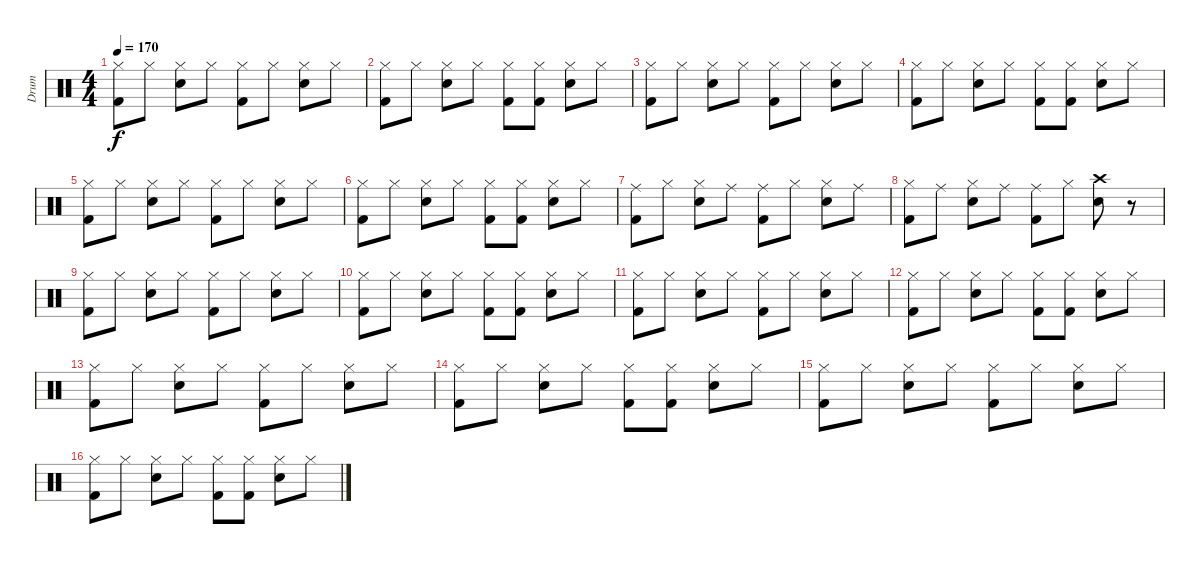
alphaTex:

\track ("Drum" "Drum") {instrument percussion}
\staff {score}
\articulation defaults
\ts (4 4)
\tempo 170
\clef neutral
\ks c
("Hi-Hat (closed)" "Kick (hit) 2").8{dy f} "Hi-Hat (closed)".8 ("Hi-Hat (closed)" "Snare (hit) 2").8 "Hi-Hat (closed)".8 ("Hi-Hat (closed)" "Kick (hit) 2").8 "Hi-Hat (closed)".8 ("Hi-Hat (closed)" "Snare (hit) 2").8 "Hi-Hat (closed)".8 |
("Hi-Hat (closed)" "Kick (hit) 2").8 "Hi-Hat (closed)".8 ("Hi-Hat (closed)" "Snare (hit) 2").8 "Hi-Hat (closed)".8 ("Hi-Hat (closed)" "Kick (hit) 2").8 ("Hi-Hat (closed)" "Kick (hit) 2").8 ("Hi-Hat (closed)" "Snare (hit) 2").8 "Hi-Hat (closed)".8 |
("Hi-Hat (closed)" "Kick (hit) 2").8 "Hi-Hat (closed)".8 ("Hi-Hat (closed)" "Snare (hit) 2").8 "Hi-Hat (closed)".8 ("Hi-Hat (closed)" "Kick (hit) 2").8 "Hi-Hat (closed)".8 ("Hi-Hat (closed)" "Snare (hit) 2").8 "Hi-Hat (closed)".8 |
("Hi-Hat (closed)" "Kick (hit) 2").8 "Hi-Hat (closed)".8 ("Hi-Hat (closed)" "Snare (hit) 2").8 "Hi-Hat (closed)".8 ("Hi-Hat (closed)" "Kick (hit) 2").8 ("Hi-Hat (closed)" "Kick (hit) 2").8 ("Hi-Hat (closed)" "Snare (hit) 2").8 "Hi-Hat (closed)".8 |
("Hi-Hat (closed)" "Kick (hit) 2").8 "Hi-Hat (closed)".8 ("Hi-Hat (closed)" "Snare (hit) 2").8 "Hi-Hat (closed)".8 ("Hi-Hat (closed)" "Kick (hit) 2").8 "Hi-Hat (closed)".8 ("Hi-Hat (closed)" "Snare (hit) 2").8 "Hi-Hat (closed)".8 |
("Hi-Hat (closed)" "Kick (hit) 2").8 "Hi-Hat (closed)".8 ("Hi-Hat (closed)" "Snare (hit) 2").8 "Hi-Hat (closed)".8 ("Hi-Hat (closed)" "Kick (hit) 2").8 ("Hi-Hat (closed)" "Kick (hit) 2").8 ("Hi-Hat (closed)" "Snare (hit) 2").8 "Hi-Hat (closed)".8 |
("Ride (middle)" "Kick (hit) 2").8 "Hi-Hat (closed)".8 ("Hi-Hat (closed)" "Snare (hit) 2").8 "Ride (middle)".8 ("Ride (middle)" "Kick (hit) 2").8 "Hi-Hat (closed)".8 ("Hi-Hat (closed)" "Snare (hit) 2").8 "Ride (middle)".8 |
("Hi-Hat (closed)" "Kick (hit) 2").8 "Ride (middle)".8 ("Hi-Hat (closed)" "Snare (hit) 2").8 "Ride (middle)".8 ("Ride (middle)" "Kick (hit) 2").8 "Hi-Hat (closed)".8 ("Crash high (hit)" "Snare (hit) 2").8 r.8 |
("Hi-Hat (closed)" "Kick (hit) 2").8 "Hi-Hat (closed)".8 ("Hi-Hat (closed)" "Snare (hit) 2").8 "Hi-Hat (closed)".8 ("Hi-Hat (closed)" "Kick (hit) 2").8 "Hi-Hat (closed)".8 ("Hi-Hat (closed)" "Snare (hit) 2").8 "Hi-Hat (closed)".8 |
("Hi-Hat (closed)" "Kick (hit) 2").8 "Hi-Hat (closed)".8 ("Hi-Hat (closed)" "Snare (hit) 2").8 "Hi-Hat (closed)".8 ("Hi-Hat (closed)" "Kick (hit) 2").8 ("Hi-Hat (closed)" "Kick (hit) 2").8 ("Hi-Hat (closed)" "Snare (hit) 2").8 "Hi-Hat (closed)".8 |
("Hi-Hat (closed)" "Kick (hit) 2").8 "Hi-Hat (closed)".8 ("Hi-Hat (closed)" "Snare (hit) 2").8 "Hi-Hat (closed)".8 ("Hi-Hat (closed)" "Kick (hit) 2").8 "Hi-Hat (closed)".8 ("Hi-Hat (closed)" "Snare (hit) 2").8 "Hi-Hat (closed)".8 |
("Hi-Hat (closed)" "Kick (hit) 2").8 "Hi-Hat (closed)".8 ("Hi-Hat (closed)" "Snare (hit) 2").8 "Hi-Hat (closed)".8 ("Hi-Hat (closed)" "Kick (hit) 2").8 ("Hi-Hat (closed)" "Kick (hit) 2").8 ("Hi-Hat (closed)" "Snare (hit) 2").8 "Hi-Hat (closed)".8 |
("Hi-Hat (closed)" "Kick (hit) 2").8 "Hi-Hat (closed)".8 ("Hi-Hat (closed)" "Snare (hit) 2").8 "Hi-Hat (closed)".8 ("Hi-Hat (closed)" "Kick (hit) 2").8 "Hi-Hat (closed)".8 ("Hi-Hat (closed)" "Snare (hit) 2").8 "Hi-Hat (closed)".8 |
("Hi-Hat (closed)" "Kick (hit) 2").8 "Hi-Hat (closed)".8 ("Hi-Hat (closed)" "Snare (hit) 2").8 "Hi-Hat (closed)".8 ("Hi-Hat (closed)" "Kick (hit) 2").8 ("Hi-Hat (closed)" "Kick (hit) 2").8 ("Hi-Hat (closed)" "Snare (hit) 2").8 "Hi-Hat (closed)".8 |
("Hi-Hat (closed)" "Kick (hit) 2").8 "Hi-Hat (closed)".8 ("Hi-Hat (closed)" "Snare (hit) 2").8 "Hi-Hat (closed)".8 ("Hi-Hat (closed)" "Kick (hit) 2").8 "Hi-Hat (closed)".8 ("Hi-Hat (closed)" "Snare (hit) 2").8 "Hi-Hat (closed)".8 |
("Hi-Hat (closed)" "Kick (hit) 2").8 "Hi-Hat (closed)".8 ("Hi-Hat (closed)" "Snare (hit) 2").8 "Hi-Hat (closed)".8 ("Hi-Hat (closed)" "Kick (hit) 2").8 ("Hi-Hat (closed)" "Kick (hit) 2").8 ("Hi-Hat (closed)" "Snare (hit) 2").8 "Hi-Hat (closed)".8
